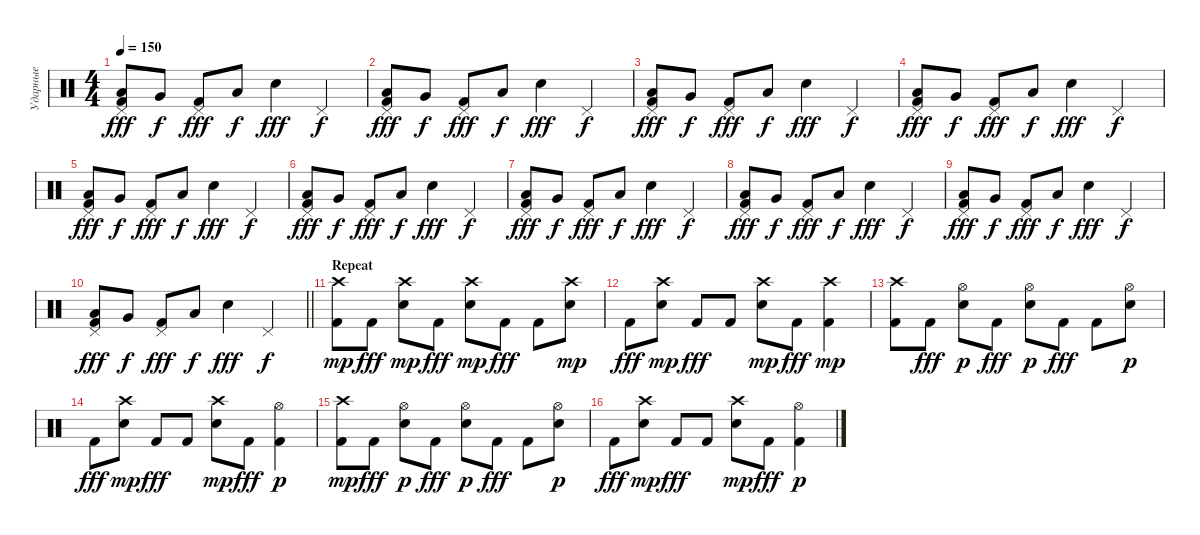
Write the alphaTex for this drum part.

\track ("Ударные" "Ударные") {instrument percussion}
\staff {score}
\articulation defaults
\ts (4 4)
\tempo 150
\clef neutral
\ks c
("Pedal Hi-Hat (hit)" "Kick (hit) 2" "Low Tom (hit)").8{dy fff} "Very Low Tom (hit)".8{dy f} ("Pedal Hi-Hat (hit)" "Kick (hit) 2").8{dy fff} "Low Floor Tom (hit)".8{dy f} "Electric Snare (hit)".4{dy fff} "Pedal Hi-Hat (hit)".4{dy f} |
("Pedal Hi-Hat (hit)" "Kick (hit) 2" "Low Tom (hit)").8{dy fff} "Very Low Tom (hit)".8{dy f} ("Pedal Hi-Hat (hit)" "Kick (hit) 2").8{dy fff} "Low Floor Tom (hit)".8{dy f} "Electric Snare (hit)".4{dy fff} "Pedal Hi-Hat (hit)".4{dy f} |
("Pedal Hi-Hat (hit)" "Kick (hit) 2" "Low Tom (hit)").8{dy fff} "Very Low Tom (hit)".8{dy f} ("Pedal Hi-Hat (hit)" "Kick (hit) 2").8{dy fff} "Low Floor Tom (hit)".8{dy f} "Electric Snare (hit)".4{dy fff} "Pedal Hi-Hat (hit)".4{dy f} |
("Pedal Hi-Hat (hit)" "Kick (hit) 2" "Low Tom (hit)").8{dy fff} "Very Low Tom (hit)".8{dy f} ("Pedal Hi-Hat (hit)" "Kick (hit) 2").8{dy fff} "Low Floor Tom (hit)".8{dy f} "Electric Snare (hit)".4{dy fff} "Pedal Hi-Hat (hit)".4{dy f} |
("Pedal Hi-Hat (hit)" "Kick (hit) 2" "Low Tom (hit)").8{dy fff} "Very Low Tom (hit)".8{dy f} ("Pedal Hi-Hat (hit)" "Kick (hit) 2").8{dy fff} "Low Floor Tom (hit)".8{dy f} "Electric Snare (hit)".4{dy fff} "Pedal Hi-Hat (hit)".4{dy f} |
("Pedal Hi-Hat (hit)" "Kick (hit) 2" "Low Tom (hit)").8{dy fff} "Very Low Tom (hit)".8{dy f} ("Pedal Hi-Hat (hit)" "Kick (hit) 2").8{dy fff} "Low Floor Tom (hit)".8{dy f} "Electric Snare (hit)".4{dy fff} "Pedal Hi-Hat (hit)".4{dy f} |
("Pedal Hi-Hat (hit)" "Kick (hit) 2" "Low Tom (hit)").8{dy fff} "Very Low Tom (hit)".8{dy f} ("Pedal Hi-Hat (hit)" "Kick (hit) 2").8{dy fff} "Low Floor Tom (hit)".8{dy f} "Electric Snare (hit)".4{dy fff} "Pedal Hi-Hat (hit)".4{dy f} |
("Pedal Hi-Hat (hit)" "Kick (hit) 2" "Low Tom (hit)").8{dy fff} "Very Low Tom (hit)".8{dy f} ("Pedal Hi-Hat (hit)" "Kick (hit) 2").8{dy fff} "Low Floor Tom (hit)".8{dy f} "Electric Snare (hit)".4{dy fff} "Pedal Hi-Hat (hit)".4{dy f} |
("Pedal Hi-Hat (hit)" "Kick (hit) 2" "Low Tom (hit)").8{dy fff} "Very Low Tom (hit)".8{dy f} ("Pedal Hi-Hat (hit)" "Kick (hit) 2").8{dy fff} "Low Floor Tom (hit)".8{dy f} "Electric Snare (hit)".4{dy fff} "Pedal Hi-Hat (hit)".4{dy f} |
\barLineRight lightlight
("Pedal Hi-Hat (hit)" "Kick (hit) 2" "Low Tom (hit)").8{dy fff} "Very Low Tom (hit)".8{dy f} ("Pedal Hi-Hat (hit)" "Kick (hit) 2").8{dy fff} "Low Floor Tom (hit)".8{dy f} "Electric Snare (hit)".4{dy fff} "Pedal Hi-Hat (hit)".4{dy f} |
\section ("" "Repeat")
("Kick (hit) 2" "Crash high (hit)").8{dy mp} "Kick (hit) 2".8{dy fff} ("Snare (hit) 2" "Crash high (hit)").8{dy mp} "Kick (hit) 2".8{dy fff} ("Snare (hit) 2" "Crash high (hit)").8{dy mp} "Kick (hit) 2".8{dy fff} "Kick (hit) 2".8 ("Snare (hit) 2" "Crash high (hit)").8{dy mp} |
"Kick (hit) 2".8{dy fff} ("Snare (hit) 2" "Crash high (hit)").8{dy mp} "Kick (hit) 2".8{dy fff} "Kick (hit) 2".8 ("Snare (hit) 2" "Crash high (hit)").8{dy mp} "Kick (hit) 2".8{dy fff} ("Kick (hit) 2" "Crash high (hit)").4{dy mp} |
("Kick (hit) 2" "Crash high (hit)").8 "Kick (hit) 2".8{dy fff} ("Snare (hit) 2" "Hi-Hat (open)").8{dy p} "Kick (hit) 2".8{dy fff} ("Snare (hit) 2" "Hi-Hat (open)").8{dy p} "Kick (hit) 2".8{dy fff} "Kick (hit) 2".8 ("Snare (hit) 2" "Hi-Hat (open)").8{dy p} |
"Kick (hit) 2".8{dy fff} ("Snare (hit) 2" "Crash high (hit)").8{dy mp} "Kick (hit) 2".8{dy fff} "Kick (hit) 2".8 ("Snare (hit) 2" "Crash high (hit)").8{dy mp} "Kick (hit) 2".8{dy fff} ("Kick (hit) 2" "Hi-Hat (open)").4{dy p} |
("Kick (hit) 2" "Crash high (hit)").8{dy mp} "Kick (hit) 2".8{dy fff} ("Snare (hit) 2" "Hi-Hat (open)").8{dy p} "Kick (hit) 2".8{dy fff} ("Snare (hit) 2" "Hi-Hat (open)").8{dy p} "Kick (hit) 2".8{dy fff} "Kick (hit) 2".8 ("Snare (hit) 2" "Hi-Hat (open)").8{dy p} |
"Kick (hit) 2".8{dy fff} ("Snare (hit) 2" "Crash high (hit)").8{dy mp} "Kick (hit) 2".8{dy fff} "Kick (hit) 2".8 ("Snare (hit) 2" "Crash high (hit)").8{dy mp} "Kick (hit) 2".8{dy fff} ("Kick (hit) 2" "Hi-Hat (open)").4{dy p}
